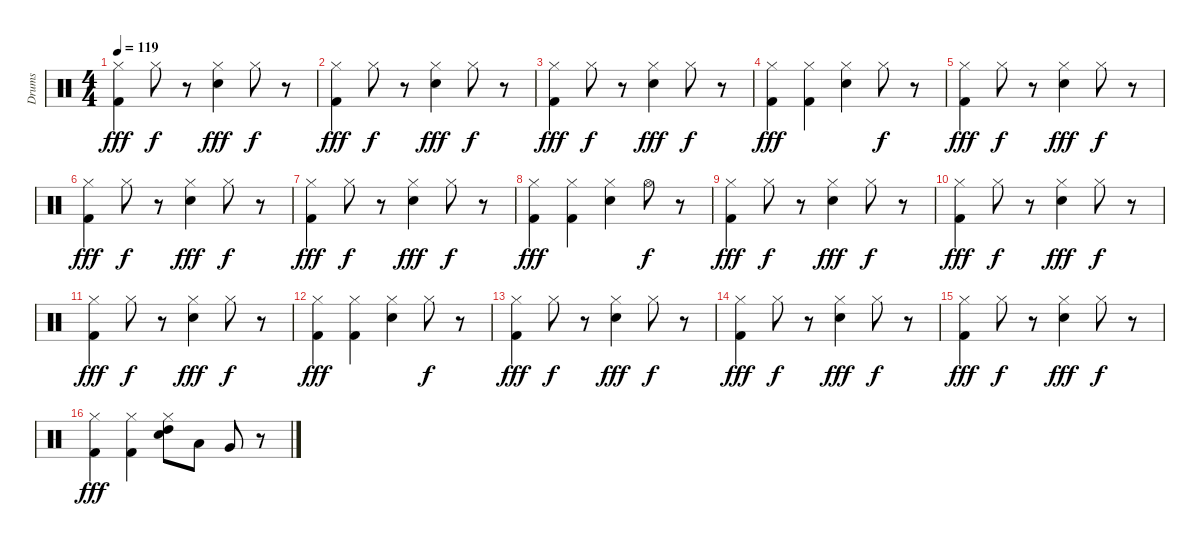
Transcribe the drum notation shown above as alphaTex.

\track ("Drums" "Drums") {instrument percussion}
\staff {score}
\articulation defaults
\ts (4 4)
\tempo 119
\clef neutral
\ks c
("Kick (hit) 2" "Hi-Hat (closed)").4{dy fff} "Hi-Hat (closed)".8{dy f} r.8 ("Hi-Hat (closed)" "Snare (hit) 2").4{dy fff} "Hi-Hat (closed)".8{dy f} r.8 |
("Kick (hit) 2" "Hi-Hat (closed)").4{dy fff} "Hi-Hat (closed)".8{dy f} r.8 ("Snare (hit) 2" "Hi-Hat (closed)").4{dy fff} "Hi-Hat (closed)".8{dy f} r.8 |
("Hi-Hat (closed)" "Kick (hit) 2").4{dy fff} "Hi-Hat (closed)".8{dy f} r.8 ("Hi-Hat (closed)" "Snare (hit) 2").4{dy fff} "Hi-Hat (closed)".8{dy f} r.8 |
("Hi-Hat (closed)" "Kick (hit) 2").4{dy fff} ("Kick (hit) 2" "Hi-Hat (closed)").4 ("Snare (hit) 2" "Hi-Hat (closed)").4 "Hi-Hat (closed)".8{dy f} r.8 |
("Kick (hit) 2" "Hi-Hat (closed)").4{dy fff} "Hi-Hat (closed)".8{dy f} r.8 ("Hi-Hat (closed)" "Snare (hit) 2").4{dy fff} "Hi-Hat (closed)".8{dy f} r.8 |
("Hi-Hat (closed)" "Kick (hit) 2").4{dy fff} "Hi-Hat (closed)".8{dy f} r.8 ("Snare (hit) 2" "Hi-Hat (closed)").4{dy fff} "Hi-Hat (closed)".8{dy f} r.8 |
("Hi-Hat (closed)" "Kick (hit) 2").4{dy fff} "Hi-Hat (closed)".8{dy f} r.8 ("Hi-Hat (closed)" "Snare (hit) 2").4{dy fff} "Hi-Hat (closed)".8{dy f} r.8 |
("Hi-Hat (closed)" "Kick (hit) 2").4{dy fff} ("Hi-Hat (closed)" "Kick (hit) 2").4 ("Hi-Hat (closed)" "Snare (hit) 2").4 "Hi-Hat (open)".8{dy f} r.8 |
("Hi-Hat (closed)" "Kick (hit) 2").4{dy fff} "Hi-Hat (closed)".8{dy f} r.8 ("Snare (hit) 2" "Hi-Hat (closed)").4{dy fff} "Hi-Hat (closed)".8{dy f} r.8 |
("Kick (hit) 2" "Hi-Hat (closed)").4{dy fff} "Hi-Hat (closed)".8{dy f} r.8 ("Hi-Hat (closed)" "Snare (hit) 2").4{dy fff} "Hi-Hat (closed)".8{dy f} r.8 |
("Hi-Hat (closed)" "Kick (hit) 2").4{dy fff} "Hi-Hat (closed)".8{dy f} r.8 ("Snare (hit) 2" "Hi-Hat (closed)").4{dy fff} "Hi-Hat (closed)".8{dy f} r.8 |
("Hi-Hat (closed)" "Kick (hit) 2").4{dy fff} ("Kick (hit) 2" "Hi-Hat (closed)").4 ("Hi-Hat (closed)" "Snare (hit) 2").4 "Hi-Hat (closed)".8{dy f} r.8 |
("Hi-Hat (closed)" "Kick (hit) 2").4{dy fff} "Hi-Hat (closed)".8{dy f} r.8 ("Hi-Hat (closed)" "Snare (hit) 2").4{dy fff} "Hi-Hat (closed)".8{dy f} r.8 |
("Hi-Hat (closed)" "Kick (hit) 2").4{dy fff} "Hi-Hat (closed)".8{dy f} r.8 ("Hi-Hat (closed)" "Snare (hit) 2").4{dy fff} "Hi-Hat (closed)".8{dy f} r.8 |
("Kick (hit) 2" "Hi-Hat (closed)").4{dy fff} "Hi-Hat (closed)".8{dy f} r.8 ("Snare (hit) 2" "Hi-Hat (closed)").4{dy fff} "Hi-Hat (closed)".8{dy f} r.8 |
("Kick (hit) 2" "Hi-Hat (closed)").4{dy fff} ("Kick (hit) 2" "Hi-Hat (closed)").4 ("High Tom (hit)" "Snare (hit) 2" "Hi-Hat (closed)").8 "Low Tom (hit)".8 "Very Low Tom (hit)".8 r.8
